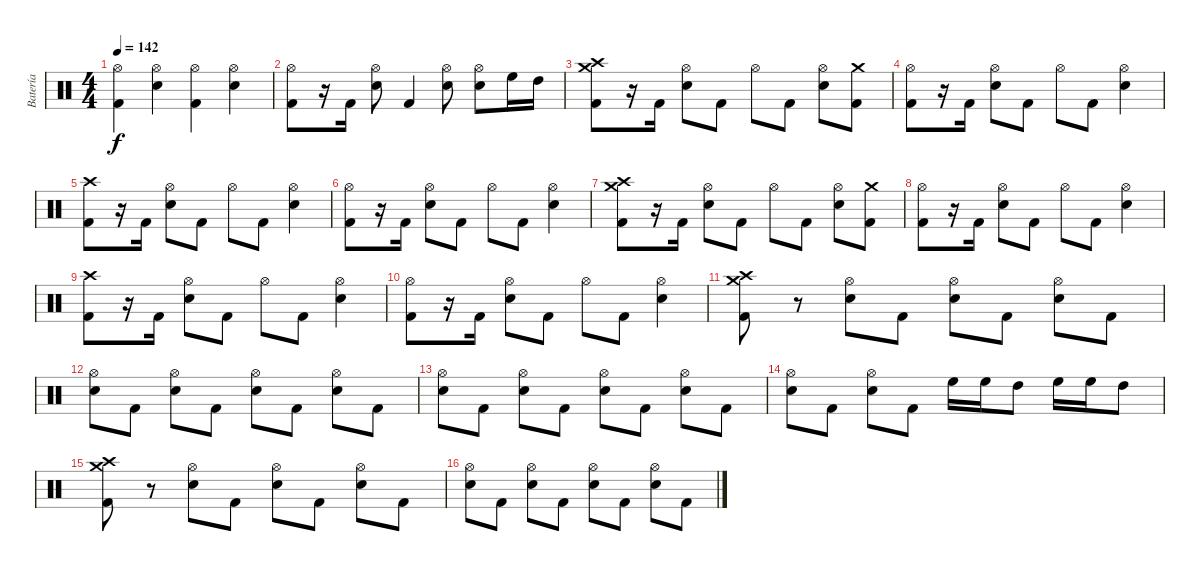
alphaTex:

\track ("Batería" "Batería") {instrument percussion}
\staff {score}
\articulation defaults
\ts (4 4)
\tempo 142
\clef neutral
\ks c
("Hi-Hat (open)" "Kick (hit) 2").4{dy f} ("Hi-Hat (open)" "Electric Snare (hit)").4 ("Hi-Hat (open)" "Kick (hit) 2").4 ("Hi-Hat (open)" "Electric Snare (hit)").4 |
("Hi-Hat (open)" "Kick (hit) 2").8 r.16 "Kick (hit) 2".16 ("Hi-Hat (open)" "Electric Snare (hit)").8 "Kick (hit) 2".4 ("Hi-Hat (open)" "Electric Snare (hit)").8 ("Hi-Hat (open)" "Electric Snare (hit)").8 "High Floor Tom (hit)".16 "High Tom (hit)".16 |
("Crash high (hit)" "Crash medium (hit)" "Kick (hit) 2").8 r.16 "Kick (hit) 2".16 ("Hi-Hat (open)" "Electric Snare (hit)").8 "Kick (hit) 2".8 "Hi-Hat (open)".8 "Kick (hit) 2".8 ("Hi-Hat (open)" "Electric Snare (hit)").8 ("Crash medium (hit)" "Kick (hit) 2").8 |
("Hi-Hat (open)" "Kick (hit) 2").8 r.16 "Kick (hit) 2".16 ("Hi-Hat (open)" "Electric Snare (hit)").8 "Kick (hit) 2".8 "Hi-Hat (open)".8 "Kick (hit) 2".8 ("Hi-Hat (open)" "Electric Snare (hit)").4 |
("Crash high (hit)" "Kick (hit) 2").8 r.16 "Kick (hit) 2".16 ("Hi-Hat (open)" "Electric Snare (hit)").8 "Kick (hit) 2".8 "Hi-Hat (open)".8 "Kick (hit) 2".8 ("Hi-Hat (open)" "Electric Snare (hit)").4 |
("Hi-Hat (open)" "Kick (hit) 2").8 r.16 "Kick (hit) 2".16 ("Hi-Hat (open)" "Electric Snare (hit)").8 "Kick (hit) 2".8 "Hi-Hat (open)".8 "Kick (hit) 2".8 ("Hi-Hat (open)" "Electric Snare (hit)").4 |
("Crash high (hit)" "Crash medium (hit)" "Kick (hit) 2").8 r.16 "Kick (hit) 2".16 ("Hi-Hat (open)" "Electric Snare (hit)").8 "Kick (hit) 2".8 "Hi-Hat (open)".8 "Kick (hit) 2".8 ("Hi-Hat (open)" "Electric Snare (hit)").8 ("Crash medium (hit)" "Kick (hit) 2").8 |
("Hi-Hat (open)" "Kick (hit) 2").8 r.16 "Kick (hit) 2".16 ("Hi-Hat (open)" "Electric Snare (hit)").8 "Kick (hit) 2".8 "Hi-Hat (open)".8 "Kick (hit) 2".8 ("Hi-Hat (open)" "Electric Snare (hit)").4 |
("Crash high (hit)" "Kick (hit) 2").8 r.16 "Kick (hit) 2".16 ("Hi-Hat (open)" "Electric Snare (hit)").8 "Kick (hit) 2".8 "Hi-Hat (open)".8 "Kick (hit) 2".8 ("Hi-Hat (open)" "Electric Snare (hit)").4 |
("Hi-Hat (open)" "Kick (hit) 2").8 r.16 "Kick (hit) 2".16 ("Hi-Hat (open)" "Electric Snare (hit)").8 "Kick (hit) 2".8 "Hi-Hat (open)".8 "Kick (hit) 2".8 ("Hi-Hat (open)" "Electric Snare (hit)").4 |
("Crash high (hit)" "Crash medium (hit)" "Kick (hit) 2").8 r.8 ("Hi-Hat (open)" "Electric Snare (hit)").8 "Kick (hit) 2".8 ("Hi-Hat (open)" "Electric Snare (hit)").8 "Kick (hit) 2".8 ("Hi-Hat (open)" "Electric Snare (hit)").8 "Kick (hit) 2".8 |
("Hi-Hat (open)" "Electric Snare (hit)").8 "Kick (hit) 2".8 ("Hi-Hat (open)" "Electric Snare (hit)").8 "Kick (hit) 2".8 ("Hi-Hat (open)" "Electric Snare (hit)").8 "Kick (hit) 2".8 ("Hi-Hat (open)" "Electric Snare (hit)").8 "Kick (hit) 2".8 |
("Hi-Hat (open)" "Electric Snare (hit)").8 "Kick (hit) 2".8 ("Hi-Hat (open)" "Electric Snare (hit)").8 "Kick (hit) 2".8 ("Hi-Hat (open)" "Electric Snare (hit)").8 "Kick (hit) 2".8 ("Hi-Hat (open)" "Electric Snare (hit)").8 "Kick (hit) 2".8 |
("Hi-Hat (open)" "Electric Snare (hit)").8 "Kick (hit) 2".8 ("Hi-Hat (open)" "Electric Snare (hit)").8 "Kick (hit) 2".8 "High Floor Tom (hit)".16 "High Floor Tom (hit)".16 "High Tom (hit)".8 "High Floor Tom (hit)".16 "High Floor Tom (hit)".16 "High Tom (hit)".8 |
("Crash high (hit)" "Crash medium (hit)" "Kick (hit) 2").8 r.8 ("Hi-Hat (open)" "Electric Snare (hit)").8 "Kick (hit) 2".8 ("Hi-Hat (open)" "Electric Snare (hit)").8 "Kick (hit) 2".8 ("Hi-Hat (open)" "Electric Snare (hit)").8 "Kick (hit) 2".8 |
("Hi-Hat (open)" "Electric Snare (hit)").8 "Kick (hit) 2".8 ("Hi-Hat (open)" "Electric Snare (hit)").8 "Kick (hit) 2".8 ("Hi-Hat (open)" "Electric Snare (hit)").8 "Kick (hit) 2".8 ("Hi-Hat (open)" "Electric Snare (hit)").8 "Kick (hit) 2".8
